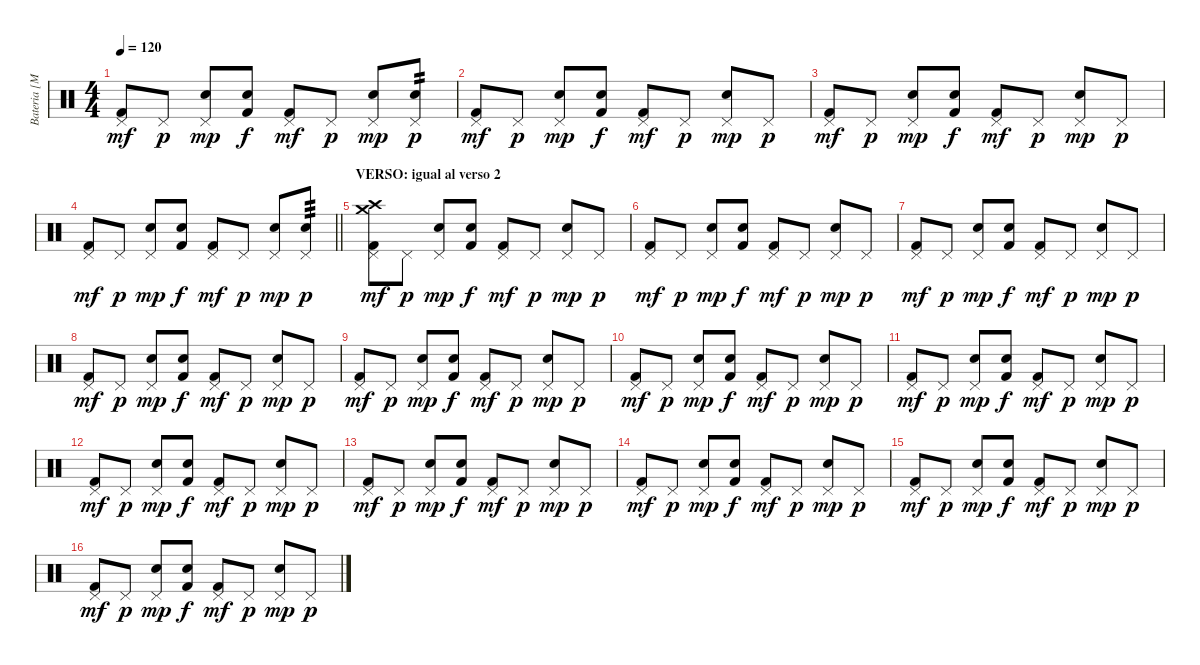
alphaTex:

\track ("Bateria [Mauricio Basualto]" "Bateria [M") {instrument percussion}
\staff {score}
\articulation defaults
\ts (4 4)
\tempo 120
\clef neutral
\ks c
("Kick (hit) 2" "Pedal Hi-Hat (hit)").8{dy mf} "Pedal Hi-Hat (hit)".8{dy p} ("Electric Snare (hit)" "Pedal Hi-Hat (hit)").8{dy mp} ("Electric Snare (hit)" "Kick (hit) 2").8{dy f} ("Kick (hit) 2" "Pedal Hi-Hat (hit)").8{dy mf} "Pedal Hi-Hat (hit)".8{dy p} ("Electric Snare (hit)" "Pedal Hi-Hat (hit)").8{dy mp} ("Pedal Hi-Hat (hit)" "Electric Snare (hit)").8{tp 2 dy p} |
("Kick (hit) 2" "Pedal Hi-Hat (hit)").8{dy mf} "Pedal Hi-Hat (hit)".8{dy p} ("Electric Snare (hit)" "Pedal Hi-Hat (hit)").8{dy mp} ("Electric Snare (hit)" "Kick (hit) 2").8{dy f} ("Kick (hit) 2" "Pedal Hi-Hat (hit)").8{dy mf} "Pedal Hi-Hat (hit)".8{dy p} ("Electric Snare (hit)" "Pedal Hi-Hat (hit)").8{dy mp} "Pedal Hi-Hat (hit)".8{dy p} |
("Kick (hit) 2" "Pedal Hi-Hat (hit)").8{dy mf} "Pedal Hi-Hat (hit)".8{dy p} ("Electric Snare (hit)" "Pedal Hi-Hat (hit)").8{dy mp} ("Electric Snare (hit)" "Kick (hit) 2").8{dy f} ("Kick (hit) 2" "Pedal Hi-Hat (hit)").8{dy mf} "Pedal Hi-Hat (hit)".8{dy p} ("Electric Snare (hit)" "Pedal Hi-Hat (hit)").8{dy mp} "Pedal Hi-Hat (hit)".8{dy p} |
\barLineRight lightlight
("Kick (hit) 2" "Pedal Hi-Hat (hit)").8{dy mf} "Pedal Hi-Hat (hit)".8{dy p} ("Electric Snare (hit)" "Pedal Hi-Hat (hit)").8{dy mp} ("Electric Snare (hit)" "Kick (hit) 2").8{dy f} ("Kick (hit) 2" "Pedal Hi-Hat (hit)").8{dy mf} "Pedal Hi-Hat (hit)".8{dy p} ("Electric Snare (hit)" "Pedal Hi-Hat (hit)").8{dy mp} ("Pedal Hi-Hat (hit)" "Electric Snare (hit)").8{tp 3 dy p} |
\section ("" "VERSO: igual al verso 2")
("Kick (hit) 2" "Pedal Hi-Hat (hit)" "Crash high (hit)" "Crash medium (hit)").8{dy mf} "Pedal Hi-Hat (hit)".8{dy p} ("Electric Snare (hit)" "Pedal Hi-Hat (hit)").8{dy mp} ("Electric Snare (hit)" "Kick (hit) 2").8{dy f} ("Kick (hit) 2" "Pedal Hi-Hat (hit)").8{dy mf} "Pedal Hi-Hat (hit)".8{dy p} ("Electric Snare (hit)" "Pedal Hi-Hat (hit)").8{dy mp} "Pedal Hi-Hat (hit)".8{dy p} |
("Kick (hit) 2" "Pedal Hi-Hat (hit)").8{dy mf} "Pedal Hi-Hat (hit)".8{dy p} ("Electric Snare (hit)" "Pedal Hi-Hat (hit)").8{dy mp} ("Electric Snare (hit)" "Kick (hit) 2").8{dy f} ("Kick (hit) 2" "Pedal Hi-Hat (hit)").8{dy mf} "Pedal Hi-Hat (hit)".8{dy p} ("Electric Snare (hit)" "Pedal Hi-Hat (hit)").8{dy mp} "Pedal Hi-Hat (hit)".8{dy p} |
("Kick (hit) 2" "Pedal Hi-Hat (hit)").8{dy mf} "Pedal Hi-Hat (hit)".8{dy p} ("Electric Snare (hit)" "Pedal Hi-Hat (hit)").8{dy mp} ("Electric Snare (hit)" "Kick (hit) 2").8{dy f} ("Kick (hit) 2" "Pedal Hi-Hat (hit)").8{dy mf} "Pedal Hi-Hat (hit)".8{dy p} ("Electric Snare (hit)" "Pedal Hi-Hat (hit)").8{dy mp} "Pedal Hi-Hat (hit)".8{dy p} |
("Kick (hit) 2" "Pedal Hi-Hat (hit)").8{dy mf} "Pedal Hi-Hat (hit)".8{dy p} ("Electric Snare (hit)" "Pedal Hi-Hat (hit)").8{dy mp} ("Electric Snare (hit)" "Kick (hit) 2").8{dy f} ("Kick (hit) 2" "Pedal Hi-Hat (hit)").8{dy mf} "Pedal Hi-Hat (hit)".8{dy p} ("Electric Snare (hit)" "Pedal Hi-Hat (hit)").8{dy mp} "Pedal Hi-Hat (hit)".8{dy p} |
("Kick (hit) 2" "Pedal Hi-Hat (hit)").8{dy mf} "Pedal Hi-Hat (hit)".8{dy p} ("Electric Snare (hit)" "Pedal Hi-Hat (hit)").8{dy mp} ("Electric Snare (hit)" "Kick (hit) 2").8{dy f} ("Kick (hit) 2" "Pedal Hi-Hat (hit)").8{dy mf} "Pedal Hi-Hat (hit)".8{dy p} ("Electric Snare (hit)" "Pedal Hi-Hat (hit)").8{dy mp} "Pedal Hi-Hat (hit)".8{dy p} |
("Kick (hit) 2" "Pedal Hi-Hat (hit)").8{dy mf} "Pedal Hi-Hat (hit)".8{dy p} ("Electric Snare (hit)" "Pedal Hi-Hat (hit)").8{dy mp} ("Electric Snare (hit)" "Kick (hit) 2").8{dy f} ("Kick (hit) 2" "Pedal Hi-Hat (hit)").8{dy mf} "Pedal Hi-Hat (hit)".8{dy p} ("Electric Snare (hit)" "Pedal Hi-Hat (hit)").8{dy mp} "Pedal Hi-Hat (hit)".8{dy p} |
("Kick (hit) 2" "Pedal Hi-Hat (hit)").8{dy mf} "Pedal Hi-Hat (hit)".8{dy p} ("Electric Snare (hit)" "Pedal Hi-Hat (hit)").8{dy mp} ("Electric Snare (hit)" "Kick (hit) 2").8{dy f} ("Kick (hit) 2" "Pedal Hi-Hat (hit)").8{dy mf} "Pedal Hi-Hat (hit)".8{dy p} ("Electric Snare (hit)" "Pedal Hi-Hat (hit)").8{dy mp} "Pedal Hi-Hat (hit)".8{dy p} |
("Kick (hit) 2" "Pedal Hi-Hat (hit)").8{dy mf} "Pedal Hi-Hat (hit)".8{dy p} ("Electric Snare (hit)" "Pedal Hi-Hat (hit)").8{dy mp} ("Electric Snare (hit)" "Kick (hit) 2").8{dy f} ("Kick (hit) 2" "Pedal Hi-Hat (hit)").8{dy mf} "Pedal Hi-Hat (hit)".8{dy p} ("Electric Snare (hit)" "Pedal Hi-Hat (hit)").8{dy mp} "Pedal Hi-Hat (hit)".8{dy p} |
("Kick (hit) 2" "Pedal Hi-Hat (hit)").8{dy mf} "Pedal Hi-Hat (hit)".8{dy p} ("Electric Snare (hit)" "Pedal Hi-Hat (hit)").8{dy mp} ("Electric Snare (hit)" "Kick (hit) 2").8{dy f} ("Kick (hit) 2" "Pedal Hi-Hat (hit)").8{dy mf} "Pedal Hi-Hat (hit)".8{dy p} ("Electric Snare (hit)" "Pedal Hi-Hat (hit)").8{dy mp} "Pedal Hi-Hat (hit)".8{dy p} |
("Kick (hit) 2" "Pedal Hi-Hat (hit)").8{dy mf} "Pedal Hi-Hat (hit)".8{dy p} ("Electric Snare (hit)" "Pedal Hi-Hat (hit)").8{dy mp} ("Electric Snare (hit)" "Kick (hit) 2").8{dy f} ("Kick (hit) 2" "Pedal Hi-Hat (hit)").8{dy mf} "Pedal Hi-Hat (hit)".8{dy p} ("Electric Snare (hit)" "Pedal Hi-Hat (hit)").8{dy mp} "Pedal Hi-Hat (hit)".8{dy p} |
("Kick (hit) 2" "Pedal Hi-Hat (hit)").8{dy mf} "Pedal Hi-Hat (hit)".8{dy p} ("Electric Snare (hit)" "Pedal Hi-Hat (hit)").8{dy mp} ("Electric Snare (hit)" "Kick (hit) 2").8{dy f} ("Kick (hit) 2" "Pedal Hi-Hat (hit)").8{dy mf} "Pedal Hi-Hat (hit)".8{dy p} ("Electric Snare (hit)" "Pedal Hi-Hat (hit)").8{dy mp} "Pedal Hi-Hat (hit)".8{dy p} |
("Kick (hit) 2" "Pedal Hi-Hat (hit)").8{dy mf} "Pedal Hi-Hat (hit)".8{dy p} ("Electric Snare (hit)" "Pedal Hi-Hat (hit)").8{dy mp} ("Electric Snare (hit)" "Kick (hit) 2").8{dy f} ("Kick (hit) 2" "Pedal Hi-Hat (hit)").8{dy mf} "Pedal Hi-Hat (hit)".8{dy p} ("Electric Snare (hit)" "Pedal Hi-Hat (hit)").8{dy mp} "Pedal Hi-Hat (hit)".8{dy p}
